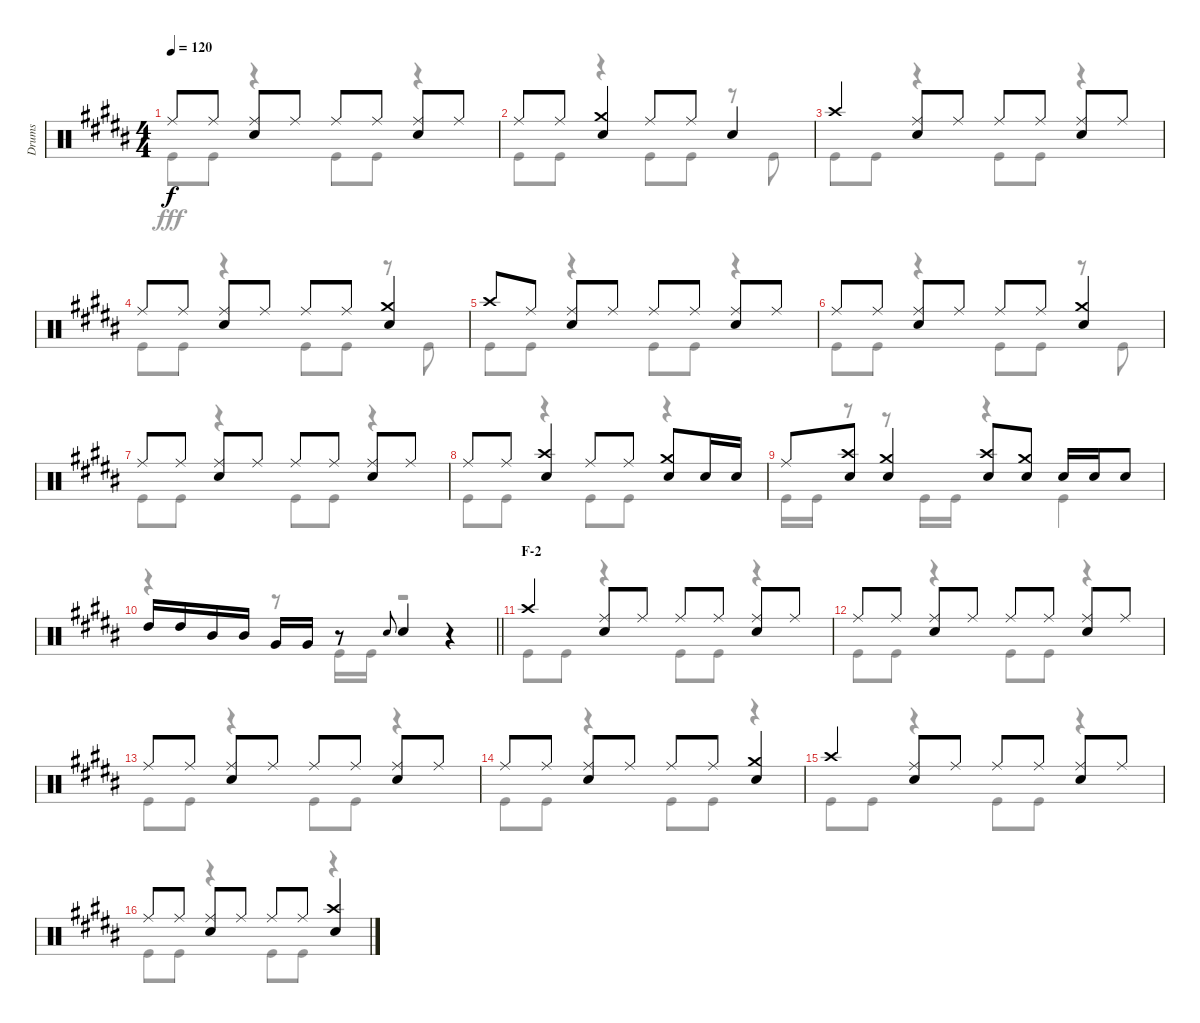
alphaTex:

\track ("Drums" "Drums") {instrument percussion}
\staff {score}
\articulation defaults
\voice
\ts (4 4)
\tempo 120
\clef neutral
\ks b "Ride (middle)".8{dy f} "Ride (middle)".8
("Ride (middle)" "Snare (hit) 2").8 "Ride (middle)".8 "Ride (middle)".8 "Ride (middle)".8 ("Ride (middle)" "Snare (hit) 2").8 "Ride (middle)".8 |
"Ride (middle)".8 "Ride (middle)".8 ("Crash medium (hit)" "Snare (hit) 2").4 "Ride (middle)".8 "Ride (middle)".8 "Snare (hit) 2".4 |
"Crash high (hit)".4 ("Ride (middle)" "Snare (hit) 2").8 "Ride (middle)".8 "Ride (middle)".8 "Ride (middle)".8 ("Ride (middle)" "Snare (hit) 2").8 "Ride (middle)".8 |
"Ride (middle)".8 "Ride (middle)".8 ("Ride (middle)" "Snare (hit) 2").8 "Ride (middle)".8 "Ride (middle)".8 "Ride (middle)".8 ("Crash medium (hit)" "Snare (hit) 2").4 |
"Crash high (hit)".8 "Ride (middle)".8 ("Ride (middle)" "Snare (hit) 2").8 "Ride (middle)".8 "Ride (middle)".8 "Ride (middle)".8 ("Ride (middle)" "Snare (hit) 2").8 "Ride (middle)".8 |
"Ride (middle)".8 "Ride (middle)".8 ("Ride (middle)" "Snare (hit) 2").8 "Ride (middle)".8 "Ride (middle)".8 "Ride (middle)".8 ("Crash medium (hit)" "Snare (hit) 2").4 |
"Ride (middle)".8 "Ride (middle)".8 ("Ride (middle)" "Snare (hit) 2").8 "Ride (middle)".8 "Ride (middle)".8 "Ride (middle)".8 ("Ride (middle)" "Snare (hit) 2").8 "Ride (middle)".8 |
"Ride (middle)".8 "Ride (middle)".8 ("Crash high (hit)" "Snare (hit) 2").4 "Ride (middle)".8 "Ride (middle)".8 ("Crash medium (hit)" "Snare (hit) 2").8 "Snare (hit) 2".16 "Snare (hit) 2".16 |
"Ride (middle)".8 ("Crash high (hit)" "Snare (hit) 2").8 ("Crash medium (hit)" "Snare (hit) 2").4 ("Crash high (hit)" "Snare (hit) 2").8 ("Crash medium (hit)" "Snare (hit) 2").8 "Snare (hit) 2".16 "Snare (hit) 2".16 "Snare (hit) 2".8 |
\barLineRight lightlight "High Tom (hit)".16 "High Tom (hit)".16 "Mid Tom (hit)".16 "Mid Tom (hit)".16 "Very Low Tom (hit)".16 "Very Low Tom (hit)".16
r.8 "Snare (hit) 2".8{gr onbeat} "Snare (hit) 2".4 r.4 |
\section ("" "F-2")
"Crash high (hit)".4 ("Ride (middle)" "Snare (hit) 2").8 "Ride (middle)".8 "Ride (middle)".8 "Ride (middle)".8 ("Ride (middle)" "Snare (hit) 2").8 "Ride (middle)".8 |
"Ride (middle)".8 "Ride (middle)".8 ("Ride (middle)" "Snare (hit) 2").8 "Ride (middle)".8 "Ride (middle)".8 "Ride (middle)".8 ("Ride (middle)" "Snare (hit) 2").8 "Ride (middle)".8 |
"Ride (middle)".8 "Ride (middle)".8 ("Ride (middle)" "Snare (hit) 2").8 "Ride (middle)".8 "Ride (middle)".8 "Ride (middle)".8 ("Ride (middle)" "Snare (hit) 2").8 "Ride (middle)".8 |
"Ride (middle)".8 "Ride (middle)".8 ("Ride (middle)" "Snare (hit) 2").8 "Ride (middle)".8 "Ride (middle)".8 "Ride (middle)".8 ("Crash medium (hit)" "Snare (hit) 2").4 |
"Crash high (hit)".4 ("Ride (middle)" "Snare (hit) 2").8 "Ride (middle)".8 "Ride (middle)".8 "Ride (middle)".8 ("Ride (middle)" "Snare (hit) 2").8 "Ride (middle)".8 |
"Ride (middle)".8 "Ride (middle)".8 ("Ride (middle)" "Snare (hit) 2").8 "Ride (middle)".8 "Ride (middle)".8 "Ride (middle)".8 ("Crash high (hit)" "Snare (hit) 2").4
\voice
\clef neutral
\ottava regular
\simile none
\ks b "Kick (hit)".8{dy fff} "Kick (hit)".8
r.4 "Kick (hit)".8 "Kick (hit)".8 r.4 |
"Kick (hit)".8 "Kick (hit)".8 r.4 "Kick (hit)".8 "Kick (hit)".8 r.8 "Kick (hit)".8 |
"Kick (hit)".8 "Kick (hit)".8 r.4 "Kick (hit)".8 "Kick (hit)".8 r.4 |
"Kick (hit)".8 "Kick (hit)".8 r.4 "Kick (hit)".8 "Kick (hit)".8 r.8 "Kick (hit)".8 |
"Kick (hit)".8 "Kick (hit)".8 r.4 "Kick (hit)".8 "Kick (hit)".8 r.4 |
"Kick (hit)".8 "Kick (hit)".8 r.4 "Kick (hit)".8 "Kick (hit)".8 r.8 "Kick (hit)".8 |
"Kick (hit)".8 "Kick (hit)".8 r.4 "Kick (hit)".8 "Kick (hit)".8 r.4 |
"Kick (hit)".8 "Kick (hit)".8 r.4 "Kick (hit)".8 "Kick (hit)".8 r.4 |
"Kick (hit)".16 "Kick (hit)".16 r.8 r.8 "Kick (hit)".16 "Kick (hit)".16 r.4 "Kick (hit)".4 |
\barLineRight lightlight
r.4 r.8 "Kick (hit)".16 "Kick (hit)".16 r.2 |
"Kick (hit)".8 "Kick (hit)".8 r.4 "Kick (hit)".8 "Kick (hit)".8 r.4 |
"Kick (hit)".8 "Kick (hit)".8 r.4 "Kick (hit)".8 "Kick (hit)".8 r.4 |
"Kick (hit)".8 "Kick (hit)".8 r.4 "Kick (hit)".8 "Kick (hit)".8 r.4 |
"Kick (hit)".8 "Kick (hit)".8 r.4 "Kick (hit)".8 "Kick (hit)".8 r.4 |
"Kick (hit)".8 "Kick (hit)".8 r.4 "Kick (hit)".8 "Kick (hit)".8 r.4 |
"Kick (hit)".8 "Kick (hit)".8 r.4 "Kick (hit)".8 "Kick (hit)".8 r.4
